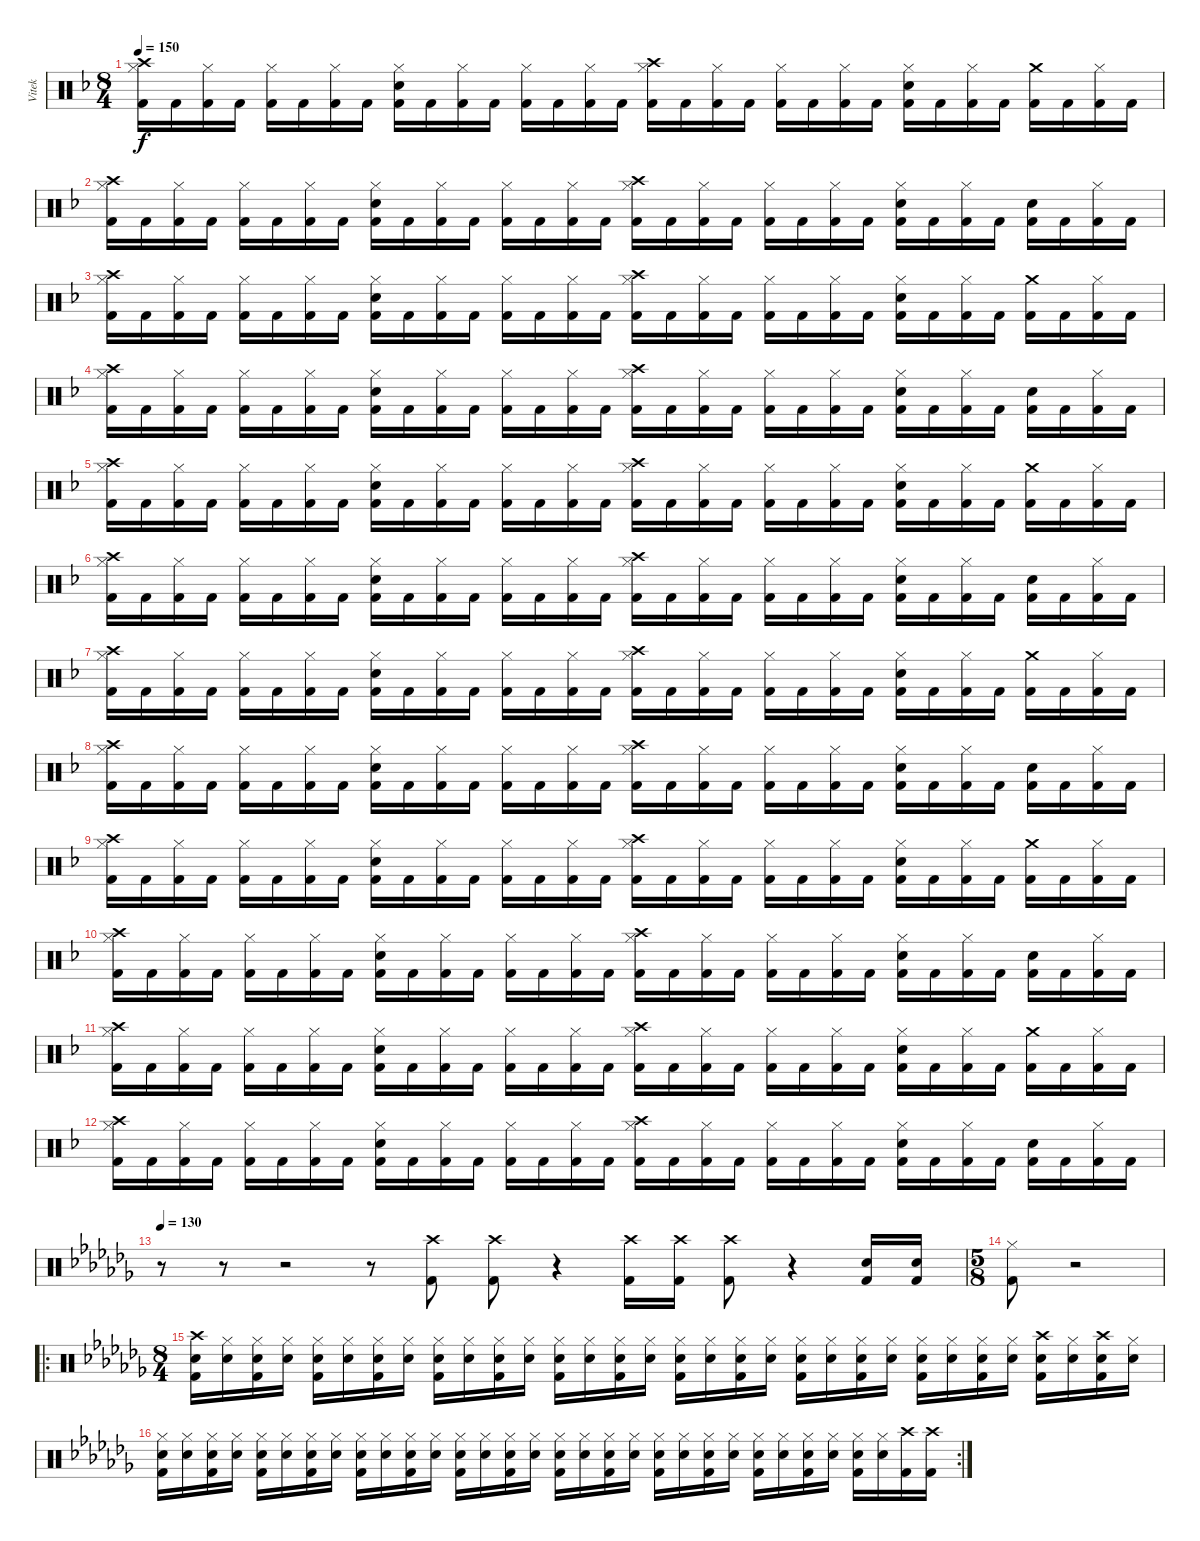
\track ("Vitek" "Vitek") {instrument percussion}
\staff
\articulation defaults
\ts (8 4)
\tempo 150
\clef neutral
\ks f
("Crash high (hit)" "Hi-Hat (closed)" "Kick (hit) 2").16{dy f} "Kick (hit) 2".16 ("Hi-Hat (closed)" "Kick (hit) 2").16 "Kick (hit) 2".16 ("Hi-Hat (closed)" "Kick (hit) 2").16 "Kick (hit) 2".16 ("Hi-Hat (closed)" "Kick (hit) 2").16 "Kick (hit) 2".16 ("Hi-Hat (closed)" "Electric Snare (hit)" "Kick (hit) 2").16 "Kick (hit) 2".16 ("Hi-Hat (closed)" "Kick (hit) 2").16 "Kick (hit) 2".16 ("Hi-Hat (closed)" "Kick (hit) 2").16 "Kick (hit) 2".16 ("Hi-Hat (closed)" "Kick (hit) 2").16 "Kick (hit) 2".16 ("Crash high (hit)" "Hi-Hat (closed)" "Kick (hit) 2").16 "Kick (hit) 2".16 ("Hi-Hat (closed)" "Kick (hit) 2").16 "Kick (hit) 2".16 ("Hi-Hat (closed)" "Kick (hit) 2").16 "Kick (hit) 2".16 ("Hi-Hat (closed)" "Kick (hit) 2").16 "Kick (hit) 2".16 ("Hi-Hat (closed)" "Electric Snare (hit)" "Kick (hit) 2").16 "Kick (hit) 2".16 ("Hi-Hat (closed)" "Kick (hit) 2").16 "Kick (hit) 2".16 ("Crash medium (hit)" "Kick (hit) 2").16 "Kick (hit) 2".16 ("Hi-Hat (closed)" "Kick (hit) 2").16 "Kick (hit) 2".16 |
("Crash high (hit)" "Hi-Hat (closed)" "Kick (hit) 2").16 "Kick (hit) 2".16 ("Hi-Hat (closed)" "Kick (hit) 2").16 "Kick (hit) 2".16 ("Hi-Hat (closed)" "Kick (hit) 2").16 "Kick (hit) 2".16 ("Hi-Hat (closed)" "Kick (hit) 2").16 "Kick (hit) 2".16 ("Hi-Hat (closed)" "Electric Snare (hit)" "Kick (hit) 2").16 "Kick (hit) 2".16 ("Hi-Hat (closed)" "Kick (hit) 2").16 "Kick (hit) 2".16 ("Hi-Hat (closed)" "Kick (hit) 2").16 "Kick (hit) 2".16 ("Hi-Hat (closed)" "Kick (hit) 2").16 "Kick (hit) 2".16 ("Crash high (hit)" "Hi-Hat (closed)" "Kick (hit) 2").16 "Kick (hit) 2".16 ("Hi-Hat (closed)" "Kick (hit) 2").16 "Kick (hit) 2".16 ("Hi-Hat (closed)" "Kick (hit) 2").16 "Kick (hit) 2".16 ("Hi-Hat (closed)" "Kick (hit) 2").16 "Kick (hit) 2".16 ("Hi-Hat (closed)" "Electric Snare (hit)" "Kick (hit) 2").16 "Kick (hit) 2".16 ("Hi-Hat (closed)" "Kick (hit) 2").16 "Kick (hit) 2".16 ("Electric Snare (hit)" "Kick (hit) 2").16 "Kick (hit) 2".16 ("Hi-Hat (closed)" "Kick (hit) 2").16 "Kick (hit) 2".16 |
("Crash high (hit)" "Hi-Hat (closed)" "Kick (hit) 2").16 "Kick (hit) 2".16 ("Hi-Hat (closed)" "Kick (hit) 2").16 "Kick (hit) 2".16 ("Hi-Hat (closed)" "Kick (hit) 2").16 "Kick (hit) 2".16 ("Hi-Hat (closed)" "Kick (hit) 2").16 "Kick (hit) 2".16 ("Hi-Hat (closed)" "Electric Snare (hit)" "Kick (hit) 2").16 "Kick (hit) 2".16 ("Hi-Hat (closed)" "Kick (hit) 2").16 "Kick (hit) 2".16 ("Hi-Hat (closed)" "Kick (hit) 2").16 "Kick (hit) 2".16 ("Hi-Hat (closed)" "Kick (hit) 2").16 "Kick (hit) 2".16 ("Crash high (hit)" "Hi-Hat (closed)" "Kick (hit) 2").16 "Kick (hit) 2".16 ("Hi-Hat (closed)" "Kick (hit) 2").16 "Kick (hit) 2".16 ("Hi-Hat (closed)" "Kick (hit) 2").16 "Kick (hit) 2".16 ("Hi-Hat (closed)" "Kick (hit) 2").16 "Kick (hit) 2".16 ("Hi-Hat (closed)" "Electric Snare (hit)" "Kick (hit) 2").16 "Kick (hit) 2".16 ("Hi-Hat (closed)" "Kick (hit) 2").16 "Kick (hit) 2".16 ("Crash medium (hit)" "Kick (hit) 2").16 "Kick (hit) 2".16 ("Hi-Hat (closed)" "Kick (hit) 2").16 "Kick (hit) 2".16 |
("Crash high (hit)" "Hi-Hat (closed)" "Kick (hit) 2").16 "Kick (hit) 2".16 ("Hi-Hat (closed)" "Kick (hit) 2").16 "Kick (hit) 2".16 ("Hi-Hat (closed)" "Kick (hit) 2").16 "Kick (hit) 2".16 ("Hi-Hat (closed)" "Kick (hit) 2").16 "Kick (hit) 2".16 ("Hi-Hat (closed)" "Electric Snare (hit)" "Kick (hit) 2").16 "Kick (hit) 2".16 ("Hi-Hat (closed)" "Kick (hit) 2").16 "Kick (hit) 2".16 ("Hi-Hat (closed)" "Kick (hit) 2").16 "Kick (hit) 2".16 ("Hi-Hat (closed)" "Kick (hit) 2").16 "Kick (hit) 2".16 ("Crash high (hit)" "Hi-Hat (closed)" "Kick (hit) 2").16 "Kick (hit) 2".16 ("Hi-Hat (closed)" "Kick (hit) 2").16 "Kick (hit) 2".16 ("Hi-Hat (closed)" "Kick (hit) 2").16 "Kick (hit) 2".16 ("Hi-Hat (closed)" "Kick (hit) 2").16 "Kick (hit) 2".16 ("Hi-Hat (closed)" "Electric Snare (hit)" "Kick (hit) 2").16 "Kick (hit) 2".16 ("Hi-Hat (closed)" "Kick (hit) 2").16 "Kick (hit) 2".16 ("Electric Snare (hit)" "Kick (hit) 2").16 "Kick (hit) 2".16 ("Hi-Hat (closed)" "Kick (hit) 2").16 "Kick (hit) 2".16 |
("Crash high (hit)" "Hi-Hat (closed)" "Kick (hit) 2").16 "Kick (hit) 2".16 ("Hi-Hat (closed)" "Kick (hit) 2").16 "Kick (hit) 2".16 ("Hi-Hat (closed)" "Kick (hit) 2").16 "Kick (hit) 2".16 ("Hi-Hat (closed)" "Kick (hit) 2").16 "Kick (hit) 2".16 ("Hi-Hat (closed)" "Electric Snare (hit)" "Kick (hit) 2").16 "Kick (hit) 2".16 ("Hi-Hat (closed)" "Kick (hit) 2").16 "Kick (hit) 2".16 ("Hi-Hat (closed)" "Kick (hit) 2").16 "Kick (hit) 2".16 ("Hi-Hat (closed)" "Kick (hit) 2").16 "Kick (hit) 2".16 ("Crash high (hit)" "Hi-Hat (closed)" "Kick (hit) 2").16 "Kick (hit) 2".16 ("Hi-Hat (closed)" "Kick (hit) 2").16 "Kick (hit) 2".16 ("Hi-Hat (closed)" "Kick (hit) 2").16 "Kick (hit) 2".16 ("Hi-Hat (closed)" "Kick (hit) 2").16 "Kick (hit) 2".16 ("Hi-Hat (closed)" "Electric Snare (hit)" "Kick (hit) 2").16 "Kick (hit) 2".16 ("Hi-Hat (closed)" "Kick (hit) 2").16 "Kick (hit) 2".16 ("Crash medium (hit)" "Kick (hit) 2").16 "Kick (hit) 2".16 ("Hi-Hat (closed)" "Kick (hit) 2").16 "Kick (hit) 2".16 |
("Crash high (hit)" "Hi-Hat (closed)" "Kick (hit) 2").16 "Kick (hit) 2".16 ("Hi-Hat (closed)" "Kick (hit) 2").16 "Kick (hit) 2".16 ("Hi-Hat (closed)" "Kick (hit) 2").16 "Kick (hit) 2".16 ("Hi-Hat (closed)" "Kick (hit) 2").16 "Kick (hit) 2".16 ("Hi-Hat (closed)" "Electric Snare (hit)" "Kick (hit) 2").16 "Kick (hit) 2".16 ("Hi-Hat (closed)" "Kick (hit) 2").16 "Kick (hit) 2".16 ("Hi-Hat (closed)" "Kick (hit) 2").16 "Kick (hit) 2".16 ("Hi-Hat (closed)" "Kick (hit) 2").16 "Kick (hit) 2".16 ("Crash high (hit)" "Hi-Hat (closed)" "Kick (hit) 2").16 "Kick (hit) 2".16 ("Hi-Hat (closed)" "Kick (hit) 2").16 "Kick (hit) 2".16 ("Hi-Hat (closed)" "Kick (hit) 2").16 "Kick (hit) 2".16 ("Hi-Hat (closed)" "Kick (hit) 2").16 "Kick (hit) 2".16 ("Hi-Hat (closed)" "Electric Snare (hit)" "Kick (hit) 2").16 "Kick (hit) 2".16 ("Hi-Hat (closed)" "Kick (hit) 2").16 "Kick (hit) 2".16 ("Electric Snare (hit)" "Kick (hit) 2").16 "Kick (hit) 2".16 ("Hi-Hat (closed)" "Kick (hit) 2").16 "Kick (hit) 2".16 |
("Crash high (hit)" "Hi-Hat (closed)" "Kick (hit) 2").16 "Kick (hit) 2".16 ("Hi-Hat (closed)" "Kick (hit) 2").16 "Kick (hit) 2".16 ("Hi-Hat (closed)" "Kick (hit) 2").16 "Kick (hit) 2".16 ("Hi-Hat (closed)" "Kick (hit) 2").16 "Kick (hit) 2".16 ("Hi-Hat (closed)" "Electric Snare (hit)" "Kick (hit) 2").16 "Kick (hit) 2".16 ("Hi-Hat (closed)" "Kick (hit) 2").16 "Kick (hit) 2".16 ("Hi-Hat (closed)" "Kick (hit) 2").16 "Kick (hit) 2".16 ("Hi-Hat (closed)" "Kick (hit) 2").16 "Kick (hit) 2".16 ("Crash high (hit)" "Hi-Hat (closed)" "Kick (hit) 2").16 "Kick (hit) 2".16 ("Hi-Hat (closed)" "Kick (hit) 2").16 "Kick (hit) 2".16 ("Hi-Hat (closed)" "Kick (hit) 2").16 "Kick (hit) 2".16 ("Hi-Hat (closed)" "Kick (hit) 2").16 "Kick (hit) 2".16 ("Hi-Hat (closed)" "Electric Snare (hit)" "Kick (hit) 2").16 "Kick (hit) 2".16 ("Hi-Hat (closed)" "Kick (hit) 2").16 "Kick (hit) 2".16 ("Crash medium (hit)" "Kick (hit) 2").16 "Kick (hit) 2".16 ("Hi-Hat (closed)" "Kick (hit) 2").16 "Kick (hit) 2".16 |
("Crash high (hit)" "Hi-Hat (closed)" "Kick (hit) 2").16 "Kick (hit) 2".16 ("Hi-Hat (closed)" "Kick (hit) 2").16 "Kick (hit) 2".16 ("Hi-Hat (closed)" "Kick (hit) 2").16 "Kick (hit) 2".16 ("Hi-Hat (closed)" "Kick (hit) 2").16 "Kick (hit) 2".16 ("Hi-Hat (closed)" "Electric Snare (hit)" "Kick (hit) 2").16 "Kick (hit) 2".16 ("Hi-Hat (closed)" "Kick (hit) 2").16 "Kick (hit) 2".16 ("Hi-Hat (closed)" "Kick (hit) 2").16 "Kick (hit) 2".16 ("Hi-Hat (closed)" "Kick (hit) 2").16 "Kick (hit) 2".16 ("Crash high (hit)" "Hi-Hat (closed)" "Kick (hit) 2").16 "Kick (hit) 2".16 ("Hi-Hat (closed)" "Kick (hit) 2").16 "Kick (hit) 2".16 ("Hi-Hat (closed)" "Kick (hit) 2").16 "Kick (hit) 2".16 ("Hi-Hat (closed)" "Kick (hit) 2").16 "Kick (hit) 2".16 ("Hi-Hat (closed)" "Electric Snare (hit)" "Kick (hit) 2").16 "Kick (hit) 2".16 ("Hi-Hat (closed)" "Kick (hit) 2").16 "Kick (hit) 2".16 ("Electric Snare (hit)" "Kick (hit) 2").16 "Kick (hit) 2".16 ("Hi-Hat (closed)" "Kick (hit) 2").16 "Kick (hit) 2".16 |
("Crash high (hit)" "Hi-Hat (closed)" "Kick (hit) 2").16 "Kick (hit) 2".16 ("Hi-Hat (closed)" "Kick (hit) 2").16 "Kick (hit) 2".16 ("Hi-Hat (closed)" "Kick (hit) 2").16 "Kick (hit) 2".16 ("Hi-Hat (closed)" "Kick (hit) 2").16 "Kick (hit) 2".16 ("Hi-Hat (closed)" "Electric Snare (hit)" "Kick (hit) 2").16 "Kick (hit) 2".16 ("Hi-Hat (closed)" "Kick (hit) 2").16 "Kick (hit) 2".16 ("Hi-Hat (closed)" "Kick (hit) 2").16 "Kick (hit) 2".16 ("Hi-Hat (closed)" "Kick (hit) 2").16 "Kick (hit) 2".16 ("Crash high (hit)" "Hi-Hat (closed)" "Kick (hit) 2").16 "Kick (hit) 2".16 ("Hi-Hat (closed)" "Kick (hit) 2").16 "Kick (hit) 2".16 ("Hi-Hat (closed)" "Kick (hit) 2").16 "Kick (hit) 2".16 ("Hi-Hat (closed)" "Kick (hit) 2").16 "Kick (hit) 2".16 ("Hi-Hat (closed)" "Electric Snare (hit)" "Kick (hit) 2").16 "Kick (hit) 2".16 ("Hi-Hat (closed)" "Kick (hit) 2").16 "Kick (hit) 2".16 ("Crash medium (hit)" "Kick (hit) 2").16 "Kick (hit) 2".16 ("Hi-Hat (closed)" "Kick (hit) 2").16 "Kick (hit) 2".16 |
("Crash high (hit)" "Hi-Hat (closed)" "Kick (hit) 2").16 "Kick (hit) 2".16 ("Hi-Hat (closed)" "Kick (hit) 2").16 "Kick (hit) 2".16 ("Hi-Hat (closed)" "Kick (hit) 2").16 "Kick (hit) 2".16 ("Hi-Hat (closed)" "Kick (hit) 2").16 "Kick (hit) 2".16 ("Hi-Hat (closed)" "Electric Snare (hit)" "Kick (hit) 2").16 "Kick (hit) 2".16 ("Hi-Hat (closed)" "Kick (hit) 2").16 "Kick (hit) 2".16 ("Hi-Hat (closed)" "Kick (hit) 2").16 "Kick (hit) 2".16 ("Hi-Hat (closed)" "Kick (hit) 2").16 "Kick (hit) 2".16 ("Crash high (hit)" "Hi-Hat (closed)" "Kick (hit) 2").16 "Kick (hit) 2".16 ("Hi-Hat (closed)" "Kick (hit) 2").16 "Kick (hit) 2".16 ("Hi-Hat (closed)" "Kick (hit) 2").16 "Kick (hit) 2".16 ("Hi-Hat (closed)" "Kick (hit) 2").16 "Kick (hit) 2".16 ("Hi-Hat (closed)" "Electric Snare (hit)" "Kick (hit) 2").16 "Kick (hit) 2".16 ("Hi-Hat (closed)" "Kick (hit) 2").16 "Kick (hit) 2".16 ("Electric Snare (hit)" "Kick (hit) 2").16 "Kick (hit) 2".16 ("Hi-Hat (closed)" "Kick (hit) 2").16 "Kick (hit) 2".16 |
("Crash high (hit)" "Hi-Hat (closed)" "Kick (hit) 2").16 "Kick (hit) 2".16 ("Hi-Hat (closed)" "Kick (hit) 2").16 "Kick (hit) 2".16 ("Hi-Hat (closed)" "Kick (hit) 2").16 "Kick (hit) 2".16 ("Hi-Hat (closed)" "Kick (hit) 2").16 "Kick (hit) 2".16 ("Hi-Hat (closed)" "Electric Snare (hit)" "Kick (hit) 2").16 "Kick (hit) 2".16 ("Hi-Hat (closed)" "Kick (hit) 2").16 "Kick (hit) 2".16 ("Hi-Hat (closed)" "Kick (hit) 2").16 "Kick (hit) 2".16 ("Hi-Hat (closed)" "Kick (hit) 2").16 "Kick (hit) 2".16 ("Crash high (hit)" "Hi-Hat (closed)" "Kick (hit) 2").16 "Kick (hit) 2".16 ("Hi-Hat (closed)" "Kick (hit) 2").16 "Kick (hit) 2".16 ("Hi-Hat (closed)" "Kick (hit) 2").16 "Kick (hit) 2".16 ("Hi-Hat (closed)" "Kick (hit) 2").16 "Kick (hit) 2".16 ("Hi-Hat (closed)" "Electric Snare (hit)" "Kick (hit) 2").16 "Kick (hit) 2".16 ("Hi-Hat (closed)" "Kick (hit) 2").16 "Kick (hit) 2".16 ("Crash medium (hit)" "Kick (hit) 2").16 "Kick (hit) 2".16 ("Hi-Hat (closed)" "Kick (hit) 2").16 "Kick (hit) 2".16 |
("Crash high (hit)" "Hi-Hat (closed)" "Kick (hit) 2").16 "Kick (hit) 2".16 ("Hi-Hat (closed)" "Kick (hit) 2").16 "Kick (hit) 2".16 ("Hi-Hat (closed)" "Kick (hit) 2").16 "Kick (hit) 2".16 ("Hi-Hat (closed)" "Kick (hit) 2").16 "Kick (hit) 2".16 ("Hi-Hat (closed)" "Electric Snare (hit)" "Kick (hit) 2").16 "Kick (hit) 2".16 ("Hi-Hat (closed)" "Kick (hit) 2").16 "Kick (hit) 2".16 ("Hi-Hat (closed)" "Kick (hit) 2").16 "Kick (hit) 2".16 ("Hi-Hat (closed)" "Kick (hit) 2").16 "Kick (hit) 2".16 ("Crash high (hit)" "Hi-Hat (closed)" "Kick (hit) 2").16 "Kick (hit) 2".16 ("Hi-Hat (closed)" "Kick (hit) 2").16 "Kick (hit) 2".16 ("Hi-Hat (closed)" "Kick (hit) 2").16 "Kick (hit) 2".16 ("Hi-Hat (closed)" "Kick (hit) 2").16 "Kick (hit) 2".16 ("Hi-Hat (closed)" "Electric Snare (hit)" "Kick (hit) 2").16 "Kick (hit) 2".16 ("Hi-Hat (closed)" "Kick (hit) 2").16 "Kick (hit) 2".16 ("Electric Snare (hit)" "Kick (hit) 2").16 "Kick (hit) 2".16 ("Hi-Hat (closed)" "Kick (hit) 2").16 "Kick (hit) 2".16 |
\tempo 130
\ks cb
r.8 r.8 r.2 r.8 ("Crash high (hit)" "Kick (hit) 2").8 ("Crash high (hit)" "Kick (hit) 2").8 r.4 ("Crash high (hit)" "Kick (hit) 2").16 ("Crash high (hit)" "Kick (hit) 2").16 ("Crash high (hit)" "Kick (hit) 2").8 r.4 ("Electric Snare (hit)" "Kick (hit) 2").16 ("Electric Snare (hit)" "Kick (hit) 2").16 |
\ts (5 8)
("Hi-Hat (closed)" "Kick (hit) 2").8 r.2 |
\ro
\ts (8 4)
("Crash high (hit)" "Electric Snare (hit)" "Kick (hit) 2").16 ("Hi-Hat (closed)" "Electric Snare (hit)").16 ("Hi-Hat (closed)" "Electric Snare (hit)" "Kick (hit) 2").16 ("Hi-Hat (closed)" "Electric Snare (hit)").16 ("Hi-Hat (closed)" "Electric Snare (hit)" "Kick (hit) 2").16 ("Hi-Hat (closed)" "Electric Snare (hit)").16 ("Hi-Hat (closed)" "Electric Snare (hit)" "Kick (hit) 2").16 ("Hi-Hat (closed)" "Electric Snare (hit)").16 ("Hi-Hat (closed)" "Electric Snare (hit)" "Kick (hit) 2").16 ("Hi-Hat (closed)" "Electric Snare (hit)").16 ("Hi-Hat (closed)" "Electric Snare (hit)" "Kick (hit) 2").16 ("Hi-Hat (closed)" "Electric Snare (hit)").16 ("Hi-Hat (closed)" "Electric Snare (hit)" "Kick (hit) 2").16 ("Hi-Hat (closed)" "Electric Snare (hit)").16 ("Hi-Hat (closed)" "Electric Snare (hit)" "Kick (hit) 2").16 ("Hi-Hat (closed)" "Electric Snare (hit)").16 ("Hi-Hat (closed)" "Electric Snare (hit)" "Kick (hit) 2").16 ("Hi-Hat (closed)" "Electric Snare (hit)").16 ("Hi-Hat (closed)" "Electric Snare (hit)" "Kick (hit) 2").16 ("Hi-Hat (closed)" "Electric Snare (hit)").16 ("Hi-Hat (closed)" "Electric Snare (hit)" "Kick (hit) 2").16 ("Hi-Hat (closed)" "Electric Snare (hit)").16 ("Hi-Hat (closed)" "Electric Snare (hit)" "Kick (hit) 2").16 ("Hi-Hat (closed)" "Electric Snare (hit)").16 ("Hi-Hat (closed)" "Electric Snare (hit)" "Kick (hit) 2").16 ("Hi-Hat (closed)" "Electric Snare (hit)").16 ("Hi-Hat (closed)" "Electric Snare (hit)" "Kick (hit) 2").16 ("Hi-Hat (closed)" "Electric Snare (hit)").16 ("Crash high (hit)" "Electric Snare (hit)" "Kick (hit) 2").16 ("Hi-Hat (closed)" "Electric Snare (hit)").16 ("Crash high (hit)" "Electric Snare (hit)" "Kick (hit) 2").16 ("Hi-Hat (closed)" "Electric Snare (hit)").16 |
\rc 2
("Hi-Hat (closed)" "Electric Snare (hit)" "Kick (hit) 2").16 ("Hi-Hat (closed)" "Electric Snare (hit)").16 ("Hi-Hat (closed)" "Electric Snare (hit)" "Kick (hit) 2").16 ("Hi-Hat (closed)" "Electric Snare (hit)").16 ("Hi-Hat (closed)" "Electric Snare (hit)" "Kick (hit) 2").16 ("Hi-Hat (closed)" "Electric Snare (hit)").16 ("Hi-Hat (closed)" "Electric Snare (hit)" "Kick (hit) 2").16 ("Hi-Hat (closed)" "Electric Snare (hit)").16 ("Hi-Hat (closed)" "Electric Snare (hit)" "Kick (hit) 2").16 ("Hi-Hat (closed)" "Electric Snare (hit)").16 ("Hi-Hat (closed)" "Electric Snare (hit)" "Kick (hit) 2").16 ("Hi-Hat (closed)" "Electric Snare (hit)").16 ("Hi-Hat (closed)" "Electric Snare (hit)" "Kick (hit) 2").16 ("Hi-Hat (closed)" "Electric Snare (hit)").16 ("Hi-Hat (closed)" "Electric Snare (hit)" "Kick (hit) 2").16 ("Hi-Hat (closed)" "Electric Snare (hit)").16 ("Hi-Hat (closed)" "Electric Snare (hit)" "Kick (hit) 2").16 ("Hi-Hat (closed)" "Electric Snare (hit)").16 ("Hi-Hat (closed)" "Electric Snare (hit)" "Kick (hit) 2").16 ("Hi-Hat (closed)" "Electric Snare (hit)").16 ("Hi-Hat (closed)" "Electric Snare (hit)" "Kick (hit) 2").16 ("Hi-Hat (closed)" "Electric Snare (hit)").16 ("Hi-Hat (closed)" "Electric Snare (hit)" "Kick (hit) 2").16 ("Hi-Hat (closed)" "Electric Snare (hit)").16 ("Hi-Hat (closed)" "Electric Snare (hit)" "Kick (hit) 2").16 ("Hi-Hat (closed)" "Electric Snare (hit)").16 ("Hi-Hat (closed)" "Electric Snare (hit)" "Kick (hit) 2").16 ("Hi-Hat (closed)" "Electric Snare (hit)").16 ("Hi-Hat (closed)" "Electric Snare (hit)" "Kick (hit) 2").16 ("Hi-Hat (closed)" "Electric Snare (hit)").16 ("Crash high (hit)" "Kick (hit) 2").16 ("Crash high (hit)" "Kick (hit) 2").16
